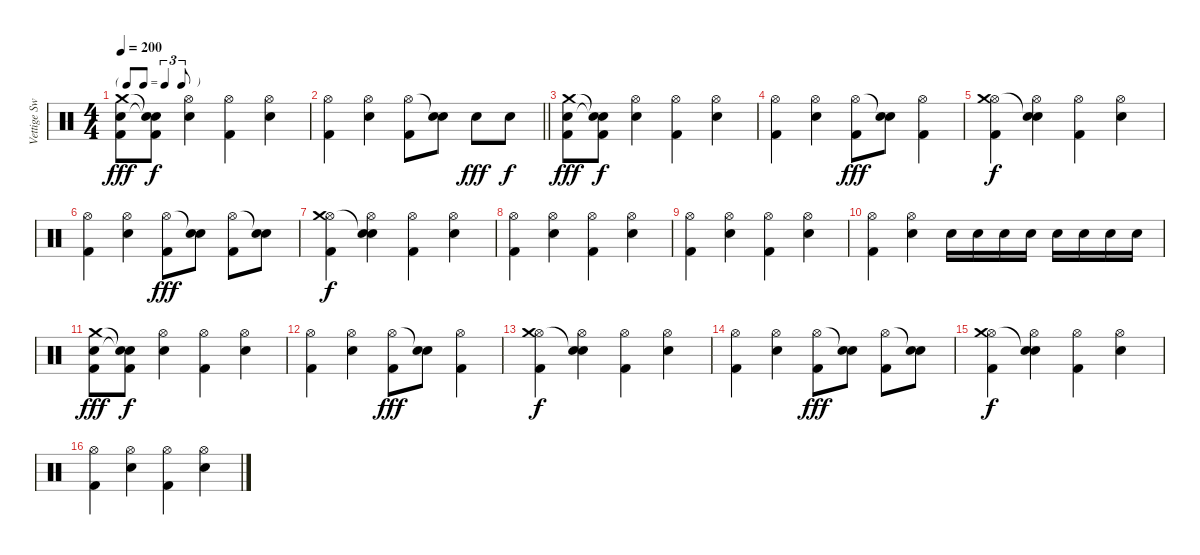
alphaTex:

\track ("Vettige Swa" "Vettige Sw") {instrument percussion}
\staff {score}
\articulation defaults
\ts (4 4)
\tf triplet8th
\tempo 200
\clef neutral
\ks c
("Electric Snare (hit)" "Kick (hit) 2" "Crash medium (hit)").8{dy fff} ("Snare (hit)"{t} "Kick (hit) 2" "Snare (hit)"{t}).8{dy f} ("Hi-Hat (open)" "Electric Snare (hit)").4 ("Hi-Hat (open)" "Kick (hit) 2").4 ("Hi-Hat (open)" "Electric Snare (hit)").4 |
\barLineRight lightlight
("Hi-Hat (open)" "Kick (hit) 2").4 ("Hi-Hat (open)" "Electric Snare (hit)").4 ("Hi-Hat (open)" "Kick (hit) 2").8 ("Snare (hit)"{t} "Electric Snare (hit)").8 "Electric Snare (hit)".8{dy fff} "Electric Snare (hit)".8{dy f} |
("Electric Snare (hit)" "Kick (hit) 2" "Crash medium (hit)").8{dy fff} ("Snare (hit)"{t} "Kick (hit) 2" "Snare (hit)"{t}).8{dy f} ("Hi-Hat (open)" "Electric Snare (hit)").4 ("Hi-Hat (open)" "Kick (hit) 2").4 ("Hi-Hat (open)" "Electric Snare (hit)").4 |
("Hi-Hat (open)" "Kick (hit) 2").4 ("Hi-Hat (open)" "Electric Snare (hit)").4 ("Hi-Hat (open)" "Kick (hit) 2").8{dy fff} ("Snare (hit)"{t} "Electric Snare (hit)").8 ("Hi-Hat (open)" "Kick (hit) 2").4 |
("Hi-Hat (open)" "Kick (hit) 2" "Crash medium (hit)").4{dy f} ("Hi-Hat (open)" "Electric Snare (hit)" "Snare (hit)"{t}).4 ("Hi-Hat (open)" "Kick (hit) 2").4 ("Hi-Hat (open)" "Electric Snare (hit)").4 |
("Hi-Hat (open)" "Kick (hit) 2").4 ("Hi-Hat (open)" "Electric Snare (hit)").4 ("Hi-Hat (open)" "Kick (hit) 2").8{dy fff} ("Snare (hit)"{t} "Electric Snare (hit)").8 ("Hi-Hat (open)" "Kick (hit) 2").8 ("Snare (hit)"{t} "Electric Snare (hit)").8 |
("Hi-Hat (open)" "Kick (hit) 2" "Crash medium (hit)").4{dy f} ("Hi-Hat (open)" "Electric Snare (hit)" "Snare (hit)"{t}).4 ("Hi-Hat (open)" "Kick (hit) 2").4 ("Hi-Hat (open)" "Electric Snare (hit)").4 |
("Hi-Hat (open)" "Kick (hit) 2").4 ("Hi-Hat (open)" "Electric Snare (hit)").4 ("Hi-Hat (open)" "Kick (hit) 2").4 ("Hi-Hat (open)" "Electric Snare (hit)").4 |
("Hi-Hat (open)" "Kick (hit) 2").4 ("Hi-Hat (open)" "Electric Snare (hit)").4 ("Hi-Hat (open)" "Kick (hit) 2").4 ("Hi-Hat (open)" "Electric Snare (hit)").4 |
("Hi-Hat (open)" "Kick (hit) 2").4 ("Hi-Hat (open)" "Electric Snare (hit)").4 "Electric Snare (hit)".16 "Electric Snare (hit)".16 "Electric Snare (hit)".16 "Electric Snare (hit)".16 "Electric Snare (hit)".16 "Electric Snare (hit)".16 "Electric Snare (hit)".16 "Electric Snare (hit)".16 |
("Electric Snare (hit)" "Kick (hit) 2" "Crash medium (hit)").8{dy fff} ("Snare (hit)"{t} "Kick (hit) 2" "Snare (hit)"{t}).8{dy f} ("Hi-Hat (open)" "Electric Snare (hit)").4 ("Hi-Hat (open)" "Kick (hit) 2").4 ("Hi-Hat (open)" "Electric Snare (hit)").4 |
("Hi-Hat (open)" "Kick (hit) 2").4 ("Hi-Hat (open)" "Electric Snare (hit)").4 ("Hi-Hat (open)" "Kick (hit) 2").8{dy fff} ("Snare (hit)"{t} "Electric Snare (hit)").8 ("Hi-Hat (open)" "Kick (hit) 2").4 |
("Hi-Hat (open)" "Kick (hit) 2" "Crash medium (hit)").4{dy f} ("Hi-Hat (open)" "Electric Snare (hit)" "Snare (hit)"{t}).4 ("Hi-Hat (open)" "Kick (hit) 2").4 ("Hi-Hat (open)" "Electric Snare (hit)").4 |
("Hi-Hat (open)" "Kick (hit) 2").4 ("Hi-Hat (open)" "Electric Snare (hit)").4 ("Hi-Hat (open)" "Kick (hit) 2").8{dy fff} ("Snare (hit)"{t} "Electric Snare (hit)").8 ("Hi-Hat (open)" "Kick (hit) 2").8 ("Snare (hit)"{t} "Electric Snare (hit)").8 |
("Hi-Hat (open)" "Kick (hit) 2" "Crash medium (hit)").4{dy f} ("Hi-Hat (open)" "Electric Snare (hit)" "Snare (hit)"{t}).4 ("Hi-Hat (open)" "Kick (hit) 2").4 ("Hi-Hat (open)" "Electric Snare (hit)").4 |
("Hi-Hat (open)" "Kick (hit) 2").4 ("Hi-Hat (open)" "Electric Snare (hit)").4 ("Hi-Hat (open)" "Kick (hit) 2").4 ("Hi-Hat (open)" "Electric Snare (hit)").4
